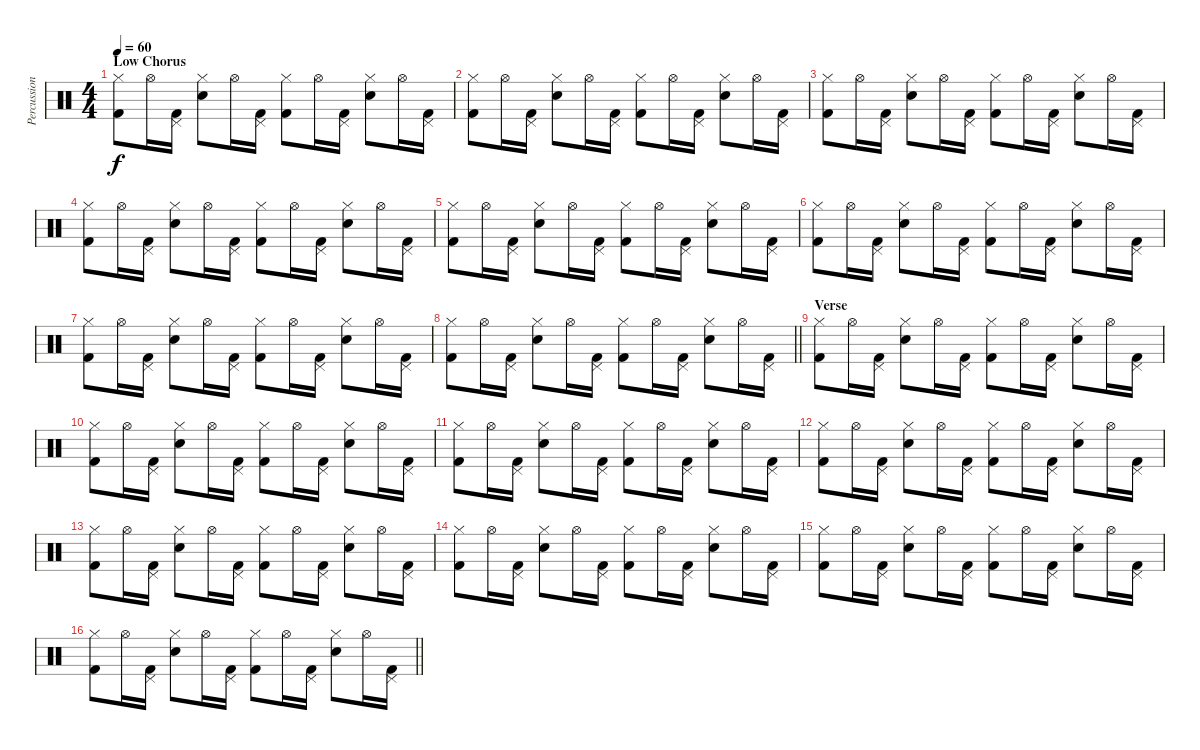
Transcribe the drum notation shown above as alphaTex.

\track ("Percussion" "Percussion") {instrument percussion}
\staff {score}
\articulation defaults
\ts (4 4)
\section ("" "Low Chorus")
\tempo 60
\clef neutral
\ks c
("Hi-Hat (closed)" "Kick (hit) 2").8{dy f} "Hi-Hat (open)".16 ("Pedal Hi-Hat (hit)" "Kick (hit) 2").16 ("Hi-Hat (closed)" "Electric Snare (hit)").8 "Hi-Hat (open)".16 ("Pedal Hi-Hat (hit)" "Kick (hit) 2").16 ("Hi-Hat (closed)" "Kick (hit) 2").8 "Hi-Hat (open)".16 ("Pedal Hi-Hat (hit)" "Kick (hit) 2").16 ("Hi-Hat (closed)" "Electric Snare (hit)").8 "Hi-Hat (open)".16 ("Pedal Hi-Hat (hit)" "Kick (hit) 2").16 |
("Hi-Hat (closed)" "Kick (hit) 2").8 "Hi-Hat (open)".16 ("Pedal Hi-Hat (hit)" "Kick (hit) 2").16 ("Hi-Hat (closed)" "Electric Snare (hit)").8 "Hi-Hat (open)".16 ("Pedal Hi-Hat (hit)" "Kick (hit) 2").16 ("Hi-Hat (closed)" "Kick (hit) 2").8 "Hi-Hat (open)".16 ("Pedal Hi-Hat (hit)" "Kick (hit) 2").16 ("Hi-Hat (closed)" "Electric Snare (hit)").8 "Hi-Hat (open)".16 ("Pedal Hi-Hat (hit)" "Kick (hit) 2").16 |
("Hi-Hat (closed)" "Kick (hit) 2").8 "Hi-Hat (open)".16 ("Pedal Hi-Hat (hit)" "Kick (hit) 2").16 ("Hi-Hat (closed)" "Electric Snare (hit)").8 "Hi-Hat (open)".16 ("Pedal Hi-Hat (hit)" "Kick (hit) 2").16 ("Hi-Hat (closed)" "Kick (hit) 2").8 "Hi-Hat (open)".16 ("Pedal Hi-Hat (hit)" "Kick (hit) 2").16 ("Hi-Hat (closed)" "Electric Snare (hit)").8 "Hi-Hat (open)".16 ("Pedal Hi-Hat (hit)" "Kick (hit) 2").16 |
("Hi-Hat (closed)" "Kick (hit) 2").8 "Hi-Hat (open)".16 ("Pedal Hi-Hat (hit)" "Kick (hit) 2").16 ("Hi-Hat (closed)" "Electric Snare (hit)").8 "Hi-Hat (open)".16 ("Pedal Hi-Hat (hit)" "Kick (hit) 2").16 ("Hi-Hat (closed)" "Kick (hit) 2").8 "Hi-Hat (open)".16 ("Pedal Hi-Hat (hit)" "Kick (hit) 2").16 ("Hi-Hat (closed)" "Electric Snare (hit)").8 "Hi-Hat (open)".16 ("Pedal Hi-Hat (hit)" "Kick (hit) 2").16 |
("Hi-Hat (closed)" "Kick (hit) 2").8 "Hi-Hat (open)".16 ("Pedal Hi-Hat (hit)" "Kick (hit) 2").16 ("Hi-Hat (closed)" "Electric Snare (hit)").8 "Hi-Hat (open)".16 ("Pedal Hi-Hat (hit)" "Kick (hit) 2").16 ("Hi-Hat (closed)" "Kick (hit) 2").8 "Hi-Hat (open)".16 ("Pedal Hi-Hat (hit)" "Kick (hit) 2").16 ("Hi-Hat (closed)" "Electric Snare (hit)").8 "Hi-Hat (open)".16 ("Pedal Hi-Hat (hit)" "Kick (hit) 2").16 |
("Hi-Hat (closed)" "Kick (hit) 2").8 "Hi-Hat (open)".16 ("Pedal Hi-Hat (hit)" "Kick (hit) 2").16 ("Hi-Hat (closed)" "Electric Snare (hit)").8 "Hi-Hat (open)".16 ("Pedal Hi-Hat (hit)" "Kick (hit) 2").16 ("Hi-Hat (closed)" "Kick (hit) 2").8 "Hi-Hat (open)".16 ("Pedal Hi-Hat (hit)" "Kick (hit) 2").16 ("Hi-Hat (closed)" "Electric Snare (hit)").8 "Hi-Hat (open)".16 ("Pedal Hi-Hat (hit)" "Kick (hit) 2").16 |
("Hi-Hat (closed)" "Kick (hit) 2").8 "Hi-Hat (open)".16 ("Pedal Hi-Hat (hit)" "Kick (hit) 2").16 ("Hi-Hat (closed)" "Electric Snare (hit)").8 "Hi-Hat (open)".16 ("Pedal Hi-Hat (hit)" "Kick (hit) 2").16 ("Hi-Hat (closed)" "Kick (hit) 2").8 "Hi-Hat (open)".16 ("Pedal Hi-Hat (hit)" "Kick (hit) 2").16 ("Hi-Hat (closed)" "Electric Snare (hit)").8 "Hi-Hat (open)".16 ("Pedal Hi-Hat (hit)" "Kick (hit) 2").16 |
\barLineRight lightlight
("Hi-Hat (closed)" "Kick (hit) 2").8 "Hi-Hat (open)".16 ("Pedal Hi-Hat (hit)" "Kick (hit) 2").16 ("Hi-Hat (closed)" "Electric Snare (hit)").8 "Hi-Hat (open)".16 ("Pedal Hi-Hat (hit)" "Kick (hit) 2").16 ("Hi-Hat (closed)" "Kick (hit) 2").8 "Hi-Hat (open)".16 ("Pedal Hi-Hat (hit)" "Kick (hit) 2").16 ("Hi-Hat (closed)" "Electric Snare (hit)").8 "Hi-Hat (open)".16 ("Pedal Hi-Hat (hit)" "Kick (hit) 2").16 |
\section ("" "Verse")
("Hi-Hat (closed)" "Kick (hit) 2").8 "Hi-Hat (open)".16 ("Pedal Hi-Hat (hit)" "Kick (hit) 2").16 ("Hi-Hat (closed)" "Electric Snare (hit)").8 "Hi-Hat (open)".16 ("Pedal Hi-Hat (hit)" "Kick (hit) 2").16 ("Hi-Hat (closed)" "Kick (hit) 2").8 "Hi-Hat (open)".16 ("Pedal Hi-Hat (hit)" "Kick (hit) 2").16 ("Hi-Hat (closed)" "Electric Snare (hit)").8 "Hi-Hat (open)".16 ("Pedal Hi-Hat (hit)" "Kick (hit) 2").16 |
("Hi-Hat (closed)" "Kick (hit) 2").8 "Hi-Hat (open)".16 ("Pedal Hi-Hat (hit)" "Kick (hit) 2").16 ("Hi-Hat (closed)" "Electric Snare (hit)").8 "Hi-Hat (open)".16 ("Pedal Hi-Hat (hit)" "Kick (hit) 2").16 ("Hi-Hat (closed)" "Kick (hit) 2").8 "Hi-Hat (open)".16 ("Pedal Hi-Hat (hit)" "Kick (hit) 2").16 ("Hi-Hat (closed)" "Electric Snare (hit)").8 "Hi-Hat (open)".16 ("Pedal Hi-Hat (hit)" "Kick (hit) 2").16 |
("Hi-Hat (closed)" "Kick (hit) 2").8 "Hi-Hat (open)".16 ("Pedal Hi-Hat (hit)" "Kick (hit) 2").16 ("Hi-Hat (closed)" "Electric Snare (hit)").8 "Hi-Hat (open)".16 ("Pedal Hi-Hat (hit)" "Kick (hit) 2").16 ("Hi-Hat (closed)" "Kick (hit) 2").8 "Hi-Hat (open)".16 ("Pedal Hi-Hat (hit)" "Kick (hit) 2").16 ("Hi-Hat (closed)" "Electric Snare (hit)").8 "Hi-Hat (open)".16 ("Pedal Hi-Hat (hit)" "Kick (hit) 2").16 |
("Hi-Hat (closed)" "Kick (hit) 2").8 "Hi-Hat (open)".16 ("Pedal Hi-Hat (hit)" "Kick (hit) 2").16 ("Hi-Hat (closed)" "Electric Snare (hit)").8 "Hi-Hat (open)".16 ("Pedal Hi-Hat (hit)" "Kick (hit) 2").16 ("Hi-Hat (closed)" "Kick (hit) 2").8 "Hi-Hat (open)".16 ("Pedal Hi-Hat (hit)" "Kick (hit) 2").16 ("Hi-Hat (closed)" "Electric Snare (hit)").8 "Hi-Hat (open)".16 ("Pedal Hi-Hat (hit)" "Kick (hit) 2").16 |
("Hi-Hat (closed)" "Kick (hit) 2").8 "Hi-Hat (open)".16 ("Pedal Hi-Hat (hit)" "Kick (hit) 2").16 ("Hi-Hat (closed)" "Electric Snare (hit)").8 "Hi-Hat (open)".16 ("Pedal Hi-Hat (hit)" "Kick (hit) 2").16 ("Hi-Hat (closed)" "Kick (hit) 2").8 "Hi-Hat (open)".16 ("Pedal Hi-Hat (hit)" "Kick (hit) 2").16 ("Hi-Hat (closed)" "Electric Snare (hit)").8 "Hi-Hat (open)".16 ("Pedal Hi-Hat (hit)" "Kick (hit) 2").16 |
("Hi-Hat (closed)" "Kick (hit) 2").8 "Hi-Hat (open)".16 ("Pedal Hi-Hat (hit)" "Kick (hit) 2").16 ("Hi-Hat (closed)" "Electric Snare (hit)").8 "Hi-Hat (open)".16 ("Pedal Hi-Hat (hit)" "Kick (hit) 2").16 ("Hi-Hat (closed)" "Kick (hit) 2").8 "Hi-Hat (open)".16 ("Pedal Hi-Hat (hit)" "Kick (hit) 2").16 ("Hi-Hat (closed)" "Electric Snare (hit)").8 "Hi-Hat (open)".16 ("Pedal Hi-Hat (hit)" "Kick (hit) 2").16 |
("Hi-Hat (closed)" "Kick (hit) 2").8 "Hi-Hat (open)".16 ("Pedal Hi-Hat (hit)" "Kick (hit) 2").16 ("Hi-Hat (closed)" "Electric Snare (hit)").8 "Hi-Hat (open)".16 ("Pedal Hi-Hat (hit)" "Kick (hit) 2").16 ("Hi-Hat (closed)" "Kick (hit) 2").8 "Hi-Hat (open)".16 ("Pedal Hi-Hat (hit)" "Kick (hit) 2").16 ("Hi-Hat (closed)" "Electric Snare (hit)").8 "Hi-Hat (open)".16 ("Pedal Hi-Hat (hit)" "Kick (hit) 2").16 |
\barLineRight lightlight
("Hi-Hat (closed)" "Kick (hit) 2").8 "Hi-Hat (open)".16 ("Pedal Hi-Hat (hit)" "Kick (hit) 2").16 ("Hi-Hat (closed)" "Electric Snare (hit)").8 "Hi-Hat (open)".16 ("Pedal Hi-Hat (hit)" "Kick (hit) 2").16 ("Hi-Hat (closed)" "Kick (hit) 2").8 "Hi-Hat (open)".16 ("Pedal Hi-Hat (hit)" "Kick (hit) 2").16 ("Hi-Hat (closed)" "Electric Snare (hit)").8 "Hi-Hat (open)".16 ("Pedal Hi-Hat (hit)" "Kick (hit) 2").16
